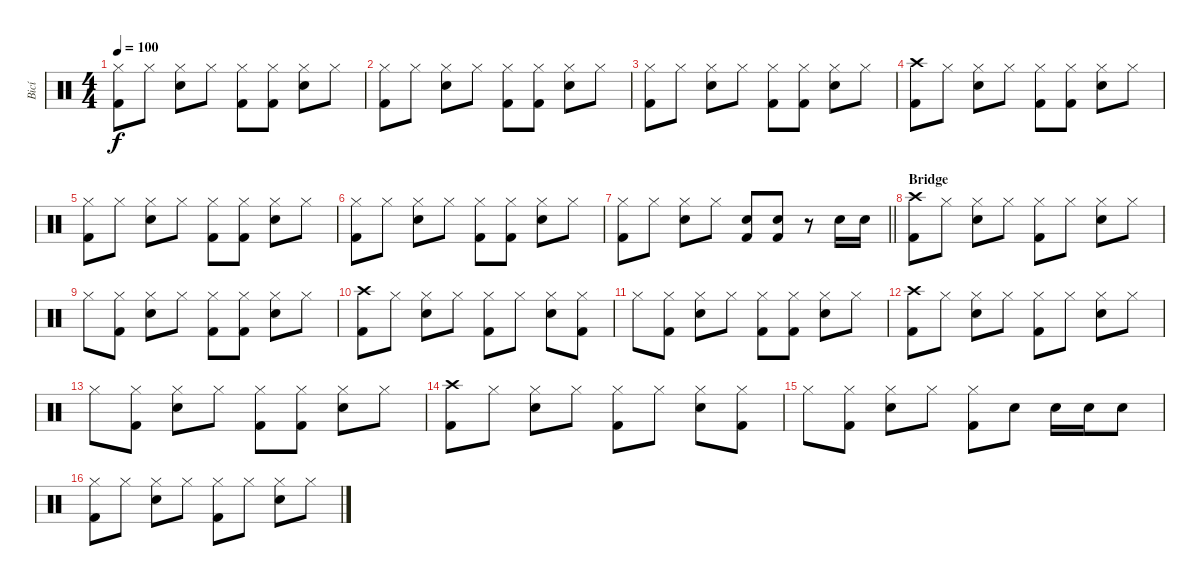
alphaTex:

\track ("Bicí" "Bicí") {instrument percussion}
\staff {score}
\articulation defaults
\ts (4 4)
\tempo 100
\clef neutral
\ks c
("Hi-Hat (closed)" "Kick (hit) 2").8{dy f} "Hi-Hat (closed)".8 ("Hi-Hat (closed)" "Electric Snare (hit)").8 "Hi-Hat (closed)".8 ("Hi-Hat (closed)" "Kick (hit) 2").8 ("Hi-Hat (closed)" "Kick (hit) 2").8 ("Hi-Hat (closed)" "Electric Snare (hit)").8 "Hi-Hat (closed)".8 |
("Hi-Hat (closed)" "Kick (hit) 2").8 "Hi-Hat (closed)".8 ("Hi-Hat (closed)" "Electric Snare (hit)").8 "Hi-Hat (closed)".8 ("Hi-Hat (closed)" "Kick (hit) 2").8 ("Hi-Hat (closed)" "Kick (hit) 2").8 ("Hi-Hat (closed)" "Electric Snare (hit)").8 "Hi-Hat (closed)".8 |
("Hi-Hat (closed)" "Kick (hit) 2").8 "Hi-Hat (closed)".8 ("Hi-Hat (closed)" "Electric Snare (hit)").8 "Hi-Hat (closed)".8 ("Hi-Hat (closed)" "Kick (hit) 2").8 ("Hi-Hat (closed)" "Kick (hit) 2").8 ("Hi-Hat (closed)" "Electric Snare (hit)").8 "Hi-Hat (closed)".8 |
("Crash high (hit)" "Kick (hit) 2").8 "Hi-Hat (closed)".8 ("Hi-Hat (closed)" "Electric Snare (hit)").8 "Hi-Hat (closed)".8 ("Hi-Hat (closed)" "Kick (hit) 2").8 ("Hi-Hat (closed)" "Kick (hit) 2").8 ("Hi-Hat (closed)" "Electric Snare (hit)").8 "Hi-Hat (closed)".8 |
("Hi-Hat (closed)" "Kick (hit) 2").8 "Hi-Hat (closed)".8 ("Hi-Hat (closed)" "Electric Snare (hit)").8 "Hi-Hat (closed)".8 ("Hi-Hat (closed)" "Kick (hit) 2").8 ("Hi-Hat (closed)" "Kick (hit) 2").8 ("Hi-Hat (closed)" "Electric Snare (hit)").8 "Hi-Hat (closed)".8 |
("Hi-Hat (closed)" "Kick (hit) 2").8 "Hi-Hat (closed)".8 ("Hi-Hat (closed)" "Electric Snare (hit)").8 "Hi-Hat (closed)".8 ("Hi-Hat (closed)" "Kick (hit) 2").8 ("Hi-Hat (closed)" "Kick (hit) 2").8 ("Hi-Hat (closed)" "Electric Snare (hit)").8 "Hi-Hat (closed)".8 |
\barLineRight lightlight
("Hi-Hat (closed)" "Kick (hit) 2").8 "Hi-Hat (closed)".8 ("Hi-Hat (closed)" "Electric Snare (hit)").8 "Hi-Hat (closed)".8 ("Electric Snare (hit)" "Kick (hit) 2").8 ("Electric Snare (hit)" "Kick (hit) 2").8 r.8 "Electric Snare (hit)".16 "Electric Snare (hit)".16 |
\section ("" "Bridge")
("Crash high (hit)" "Kick (hit) 2").8 "Hi-Hat (closed)".8 ("Hi-Hat (closed)" "Electric Snare (hit)").8 "Hi-Hat (closed)".8 ("Hi-Hat (closed)" "Kick (hit) 2").8 "Hi-Hat (closed)".8 ("Hi-Hat (closed)" "Electric Snare (hit)").8 "Hi-Hat (closed)".8 |
"Hi-Hat (closed)".8 ("Hi-Hat (closed)" "Kick (hit) 2").8 ("Hi-Hat (closed)" "Electric Snare (hit)").8 "Hi-Hat (closed)".8 ("Hi-Hat (closed)" "Kick (hit) 2").8 ("Hi-Hat (closed)" "Kick (hit) 2").8 ("Hi-Hat (closed)" "Electric Snare (hit)").8 "Hi-Hat (closed)".8 |
("Crash high (hit)" "Kick (hit) 2").8 "Hi-Hat (closed)".8 ("Hi-Hat (closed)" "Electric Snare (hit)").8 "Hi-Hat (closed)".8 ("Hi-Hat (closed)" "Kick (hit) 2").8 "Hi-Hat (closed)".8 ("Hi-Hat (closed)" "Electric Snare (hit)").8 ("Hi-Hat (closed)" "Kick (hit) 2").8 |
"Hi-Hat (closed)".8 ("Hi-Hat (closed)" "Kick (hit) 2").8 ("Hi-Hat (closed)" "Electric Snare (hit)").8 "Hi-Hat (closed)".8 ("Hi-Hat (closed)" "Kick (hit) 2").8 ("Hi-Hat (closed)" "Kick (hit) 2").8 ("Hi-Hat (closed)" "Electric Snare (hit)").8 "Hi-Hat (closed)".8 |
("Crash high (hit)" "Kick (hit) 2").8 "Hi-Hat (closed)".8 ("Hi-Hat (closed)" "Electric Snare (hit)").8 "Hi-Hat (closed)".8 ("Hi-Hat (closed)" "Kick (hit) 2").8 "Hi-Hat (closed)".8 ("Hi-Hat (closed)" "Electric Snare (hit)").8 "Hi-Hat (closed)".8 |
"Hi-Hat (closed)".8 ("Hi-Hat (closed)" "Kick (hit) 2").8 ("Hi-Hat (closed)" "Electric Snare (hit)").8 "Hi-Hat (closed)".8 ("Hi-Hat (closed)" "Kick (hit) 2").8 ("Hi-Hat (closed)" "Kick (hit) 2").8 ("Hi-Hat (closed)" "Electric Snare (hit)").8 "Hi-Hat (closed)".8 |
("Crash high (hit)" "Kick (hit) 2").8 "Hi-Hat (closed)".8 ("Hi-Hat (closed)" "Electric Snare (hit)").8 "Hi-Hat (closed)".8 ("Hi-Hat (closed)" "Kick (hit) 2").8 "Hi-Hat (closed)".8 ("Hi-Hat (closed)" "Electric Snare (hit)").8 ("Hi-Hat (closed)" "Kick (hit) 2").8 |
"Hi-Hat (closed)".8 ("Hi-Hat (closed)" "Kick (hit) 2").8 ("Hi-Hat (closed)" "Electric Snare (hit)").8 "Hi-Hat (closed)".8 ("Hi-Hat (closed)" "Kick (hit) 2").8 "Electric Snare (hit)".8 "Electric Snare (hit)".16 "Electric Snare (hit)".16 "Electric Snare (hit)".8 |
("Hi-Hat (closed)" "Kick (hit) 2").8 "Hi-Hat (closed)".8 ("Hi-Hat (closed)" "Electric Snare (hit)").8 "Hi-Hat (closed)".8 ("Hi-Hat (closed)" "Kick (hit) 2").8 "Hi-Hat (closed)".8 ("Hi-Hat (closed)" "Electric Snare (hit)").8 "Hi-Hat (closed)".8
